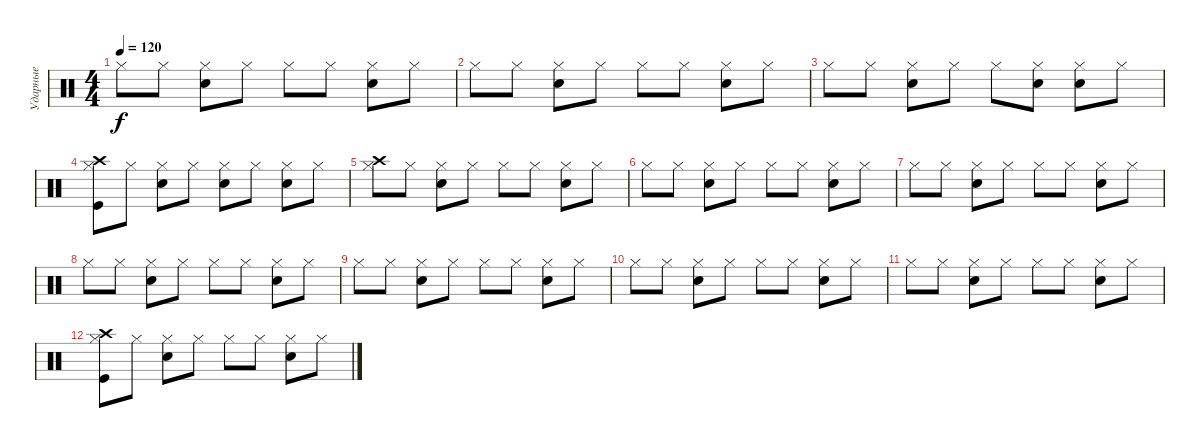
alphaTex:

\track ("Ударные" "Ударные") {instrument percussion}
\staff {score}
\articulation defaults
\ts (4 4)
\tempo 120
\clef neutral
\ks c "Hi-Hat (closed)".8{dy f} "Hi-Hat (closed)".8
("Hi-Hat (closed)" "Electric Snare (hit)").8 "Hi-Hat (closed)".8 "Hi-Hat (closed)".8 "Hi-Hat (closed)".8 ("Hi-Hat (closed)" "Electric Snare (hit)").8 "Hi-Hat (closed)".8 |
"Hi-Hat (closed)".8 "Hi-Hat (closed)".8 ("Hi-Hat (closed)" "Electric Snare (hit)").8 "Hi-Hat (closed)".8 "Hi-Hat (closed)".8 "Hi-Hat (closed)".8 ("Hi-Hat (closed)" "Electric Snare (hit)").8 "Hi-Hat (closed)".8 |
"Hi-Hat (closed)".8 "Hi-Hat (closed)".8 ("Hi-Hat (closed)" "Electric Snare (hit)").8 "Hi-Hat (closed)".8 "Hi-Hat (closed)".8 ("Hi-Hat (closed)" "Electric Snare (hit)").8 ("Hi-Hat (closed)" "Electric Snare (hit)").8 "Hi-Hat (closed)".8 |
("Hi-Hat (closed)" "Crash high (hit)" "Kick (hit)").8 "Hi-Hat (closed)".8 ("Hi-Hat (closed)" "Electric Snare (hit)").8 "Hi-Hat (closed)".8 ("Hi-Hat (closed)" "Electric Snare (hit)").8 "Hi-Hat (closed)".8 ("Hi-Hat (closed)" "Electric Snare (hit)").8 "Hi-Hat (closed)".8 |
("Hi-Hat (closed)" "Crash high (hit)").8 "Hi-Hat (closed)".8 ("Hi-Hat (closed)" "Electric Snare (hit)").8 "Hi-Hat (closed)".8 "Hi-Hat (closed)".8 "Hi-Hat (closed)".8 ("Hi-Hat (closed)" "Electric Snare (hit)").8 "Hi-Hat (closed)".8 |
"Hi-Hat (closed)".8 "Hi-Hat (closed)".8 ("Hi-Hat (closed)" "Electric Snare (hit)").8 "Hi-Hat (closed)".8 "Hi-Hat (closed)".8 "Hi-Hat (closed)".8 ("Hi-Hat (closed)" "Electric Snare (hit)").8 "Hi-Hat (closed)".8 |
"Hi-Hat (closed)".8 "Hi-Hat (closed)".8 ("Hi-Hat (closed)" "Electric Snare (hit)").8 "Hi-Hat (closed)".8 "Hi-Hat (closed)".8 "Hi-Hat (closed)".8 ("Hi-Hat (closed)" "Electric Snare (hit)").8 "Hi-Hat (closed)".8 |
"Hi-Hat (closed)".8 "Hi-Hat (closed)".8 ("Hi-Hat (closed)" "Electric Snare (hit)").8 "Hi-Hat (closed)".8 "Hi-Hat (closed)".8 "Hi-Hat (closed)".8 ("Hi-Hat (closed)" "Electric Snare (hit)").8 "Hi-Hat (closed)".8 |
"Hi-Hat (closed)".8 "Hi-Hat (closed)".8 ("Hi-Hat (closed)" "Electric Snare (hit)").8 "Hi-Hat (closed)".8 "Hi-Hat (closed)".8 "Hi-Hat (closed)".8 ("Hi-Hat (closed)" "Electric Snare (hit)").8 "Hi-Hat (closed)".8 |
"Hi-Hat (closed)".8 "Hi-Hat (closed)".8 ("Hi-Hat (closed)" "Electric Snare (hit)").8 "Hi-Hat (closed)".8 "Hi-Hat (closed)".8 "Hi-Hat (closed)".8 ("Hi-Hat (closed)" "Electric Snare (hit)").8 "Hi-Hat (closed)".8 |
"Hi-Hat (closed)".8 "Hi-Hat (closed)".8 ("Hi-Hat (closed)" "Electric Snare (hit)").8 "Hi-Hat (closed)".8 "Hi-Hat (closed)".8 "Hi-Hat (closed)".8 ("Hi-Hat (closed)" "Electric Snare (hit)").8 "Hi-Hat (closed)".8 |
("Hi-Hat (closed)" "Crash high (hit)" "Kick (hit)").8 "Hi-Hat (closed)".8 ("Hi-Hat (closed)" "Electric Snare (hit)").8 "Hi-Hat (closed)".8 "Hi-Hat (closed)".8 "Hi-Hat (closed)".8 ("Hi-Hat (closed)" "Electric Snare (hit)").8 "Hi-Hat (closed)".8
